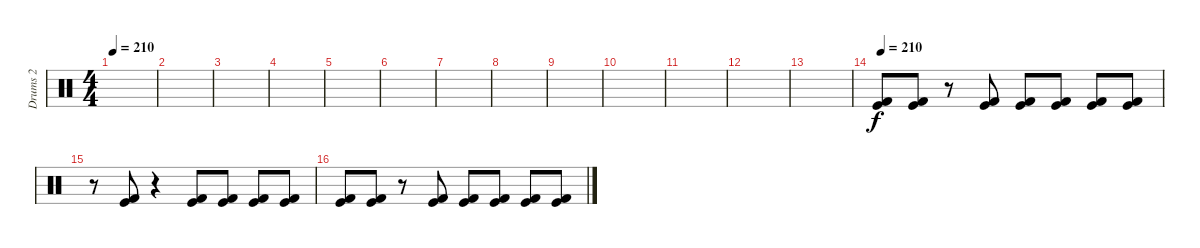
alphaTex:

\track ("Drums 2" "Drums 2") {instrument percussion}
\staff {score}
\articulation defaults
\ts (4 4)
\tempo 210
\clef neutral
\ks c
|
|
|
|
|
|
|
|
|
|
|
|
|
\tempo 210
("Kick (hit) 2" "Kick (hit)").8 ("Kick (hit) 2" "Kick (hit)").8 r.8 ("Kick (hit) 2" "Kick (hit)").8 ("Kick (hit) 2" "Kick (hit)").8 ("Kick (hit) 2" "Kick (hit)").8 ("Kick (hit) 2" "Kick (hit)").8 ("Kick (hit) 2" "Kick (hit)").8 |
r.8 ("Kick (hit) 2" "Kick (hit)").8 r.4 ("Kick (hit) 2" "Kick (hit)").8 ("Kick (hit) 2" "Kick (hit)").8 ("Kick (hit) 2" "Kick (hit)").8 ("Kick (hit) 2" "Kick (hit)").8 |
("Kick (hit) 2" "Kick (hit)").8 ("Kick (hit) 2" "Kick (hit)").8 r.8 ("Kick (hit) 2" "Kick (hit)").8 ("Kick (hit) 2" "Kick (hit)").8 ("Kick (hit) 2" "Kick (hit)").8 ("Kick (hit) 2" "Kick (hit)").8 ("Kick (hit) 2" "Kick (hit)").8
